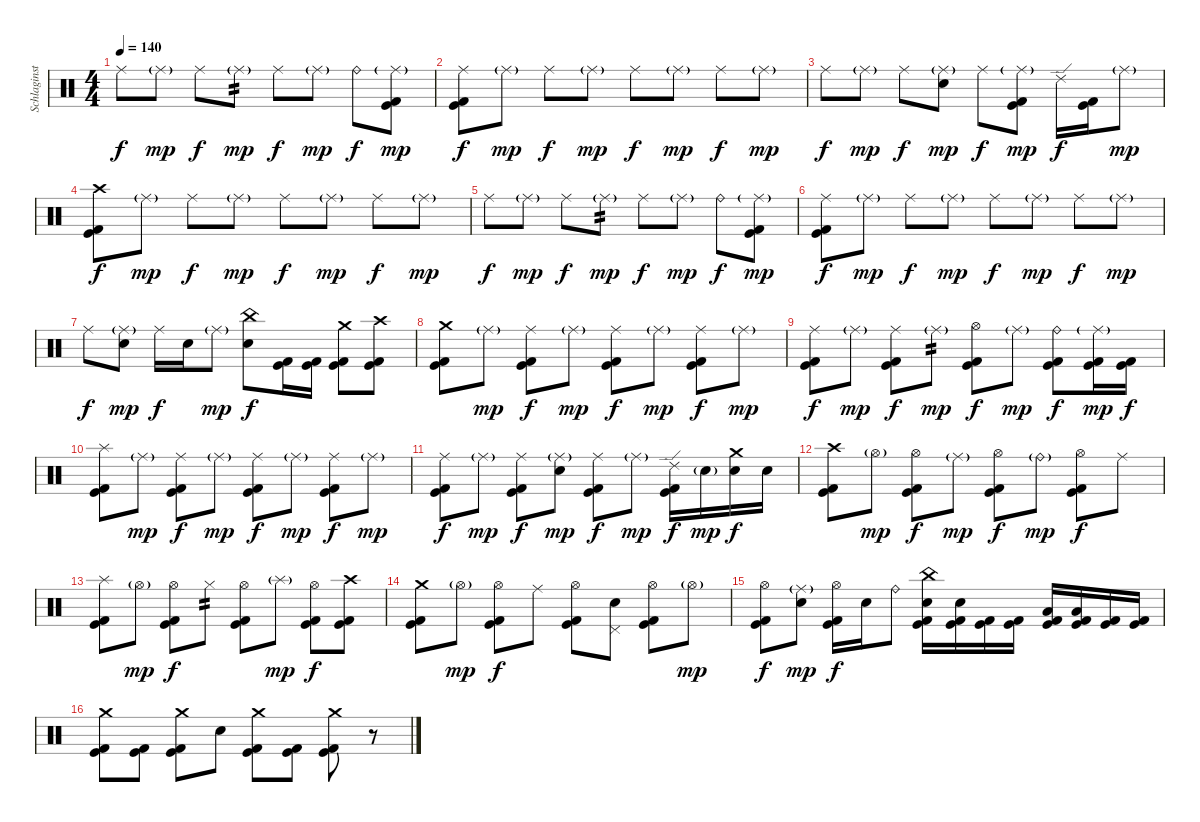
\track ("Schlaginstrumente - Auswahl" "Schlaginst") {instrument percussion}
\staff {score}
\articulation defaults
\ts (4 4)
\tempo 140
\clef neutral
\ks c "Ride (middle)".8{dy f} "Ride (middle)"{g}.8{dy mp} "Ride (middle)".8{dy f} "Ride (middle)"{g}.8{tp 2 dy mp} "Ride (middle)".8{dy f} "Ride (middle)"{g}.8{dy mp} "Ride (bell)".8{dy f}
("Ride (middle)"{g} "Kick (hit)" "Kick (hit) 2").8{dy mp} |
("Ride (middle)" "Kick (hit)" "Kick (hit) 2").8{dy f} "Ride (middle)"{g}.8{dy mp} "Ride (middle)".8{dy f} "Ride (middle)"{g}.8{dy mp} "Ride (middle)".8{dy f} "Ride (middle)"{g}.8{dy mp} "Ride (middle)".8{dy f} "Ride (middle)"{g}.8{dy mp} |
"Ride (middle)".8{dy f} "Ride (middle)"{g}.8{dy mp} "Ride (middle)".8{dy f} ("Ride (middle)"{g} "Electric Snare (hit)").8{dy mp} "Ride (middle)".8{dy f} ("Ride (middle)"{g} "Kick (hit)" "Kick (hit) 2").8{dy mp} "Ride (edge) 2".16{dy f} ("Kick (hit)" "Kick (hit) 2").16 "Ride (middle)"{g}.8{dy mp} |
("Crash high (hit)" "Kick (hit)" "Kick (hit) 2").8{dy f} "Ride (middle)"{g}.8{dy mp} "Ride (middle)".8{dy f} "Ride (middle)"{g}.8{dy mp} "Ride (middle)".8{dy f} "Ride (middle)"{g}.8{dy mp} "Ride (middle)".8{dy f} "Ride (middle)"{g}.8{dy mp} |
"Ride (middle)".8{dy f} "Ride (middle)"{g}.8{dy mp} "Ride (middle)".8{dy f} "Ride (middle)"{g}.8{tp 2 dy mp} "Ride (middle)".8{dy f} "Ride (middle)"{g}.8{dy mp} "Ride (bell)".8{dy f} ("Ride (middle)"{g} "Kick (hit)" "Kick (hit) 2").8{dy mp} |
("Ride (middle)" "Kick (hit)" "Kick (hit) 2").8{dy f} "Ride (middle)"{g}.8{dy mp} "Ride (middle)".8{dy f} "Ride (middle)"{g}.8{dy mp} "Ride (middle)".8{dy f} "Ride (middle)"{g}.8{dy mp} "Ride (middle)".8{dy f} "Ride (middle)"{g}.8{dy mp} |
"Ride (middle)".8{dy f} ("Ride (middle)"{g} "Electric Snare (hit)").8{dy mp} "Ride (middle)".16{dy f} "Electric Snare (hit)".16 "Ride (middle)"{g}.8{dy mp} ("China (hit)" "Electric Snare (hit)").8{dy f} ("Kick (hit)" "Kick (hit) 2").16 ("Kick (hit)" "Kick (hit) 2").16 ("Crash medium (hit)" "Kick (hit)" "Kick (hit) 2").8 ("Crash high (hit)" "Kick (hit)" "Kick (hit) 2").8 |
("Crash medium (hit)" "Kick (hit)" "Kick (hit) 2").8 "Ride (middle)"{g}.8{dy mp} ("Ride (middle)" "Kick (hit)" "Kick (hit) 2").8{dy f} "Ride (middle)"{g}.8{dy mp} ("Ride (middle)" "Kick (hit)" "Kick (hit) 2").8{dy f} "Ride (middle)"{g}.8{dy mp} ("Ride (middle)" "Kick (hit)" "Kick (hit) 2").8{dy f} "Ride (middle)"{g}.8{dy mp} |
("Ride (middle)" "Kick (hit)" "Kick (hit) 2").8{dy f} "Ride (middle)"{g}.8{dy mp} ("Ride (middle)" "Kick (hit)" "Kick (hit) 2").8{dy f} "Ride (middle)"{g}.8{tp 2 dy mp} ("Hi-Hat (open)" "Kick (hit)" "Kick (hit) 2").8{dy f} "Ride (middle)"{g}.8{dy mp} ("Ride (bell)" "Kick (hit)" "Kick (hit) 2").8{dy f} ("Ride (middle)"{g} "Kick (hit)" "Kick (hit) 2").16{dy mp} ("Kick (hit)" "Kick (hit) 2").16{dy f} |
("Splash (hit)" "Kick (hit)" "Kick (hit) 2").8 "Ride (middle)"{g}.8{dy mp} ("Ride (middle)" "Kick (hit)" "Kick (hit) 2").8{dy f} "Ride (middle)"{g}.8{dy mp} ("Ride (middle)" "Kick (hit)" "Kick (hit) 2").8{dy f} "Ride (middle)"{g}.8{dy mp} ("Ride (middle)" "Kick (hit)" "Kick (hit) 2").8{dy f} "Ride (middle)"{g}.8{dy mp} |
("Ride (middle)" "Kick (hit)" "Kick (hit) 2").8{dy f} "Ride (middle)"{g}.8{dy mp} ("Ride (middle)" "Kick (hit)" "Kick (hit) 2").8{dy f} ("Ride (middle)"{g} "Electric Snare (hit)").8{dy mp} ("Ride (middle)" "Kick (hit)" "Kick (hit) 2").8{dy f} "Ride (middle)"{g}.8{dy mp} ("Ride (edge) 2" "Kick (hit)" "Kick (hit) 2").16{dy f} "Electric Snare (hit)"{g}.16{dy mp} ("Crash medium (hit)" "Electric Snare (hit)").16{dy f} "Electric Snare (hit)".16 |
("Crash high (hit)" "Kick (hit)" "Kick (hit) 2").8 "Hi-Hat (open)"{g}.8{dy mp} ("Hi-Hat (open)" "Kick (hit)" "Kick (hit) 2").8{dy f} "Ride (middle)"{g}.8{dy mp} ("Hi-Hat (open)" "Kick (hit)" "Kick (hit) 2").8{dy f} "Ride (bell)"{g}.8{dy mp} ("Hi-Hat (open)" "Kick (hit)" "Kick (hit) 2").8{dy f} "Ride (middle)".8 |
("Splash (hit)" "Kick (hit)" "Kick (hit) 2").8 "Hi-Hat (open)"{g}.8{dy mp} ("Hi-Hat (open)" "Kick (hit)" "Kick (hit) 2").8{dy f} "Hi-Hat (closed)".8{tp 2} ("Hi-Hat (open)" "Kick (hit)" "Kick (hit) 2").8 "Splash (hit)"{g}.8{dy mp} ("Hi-Hat (open)" "Kick (hit)" "Kick (hit) 2").8{dy f} ("Crash high (hit)" "Kick (hit)" "Kick (hit) 2").8 |
("Crash medium (hit)" "Kick (hit)" "Kick (hit) 2").8 "Hi-Hat (open)"{g}.8{dy mp} ("Hi-Hat (open)" "Kick (hit)" "Kick (hit) 2").8{dy f} "Ride (middle)".8 ("Hi-Hat (open)" "Kick (hit)" "Kick (hit) 2").8 ("Pedal Hi-Hat (hit)" "Electric Snare (hit)").8 ("Hi-Hat (open)" "Kick (hit)" "Kick (hit) 2").8 "Hi-Hat (open)"{g}.8{dy mp} |
("Hi-Hat (open)" "Kick (hit)" "Kick (hit) 2").8{dy f} ("Ride (middle)"{g} "Electric Snare (hit)").8{dy mp} ("Hi-Hat (open)" "Kick (hit)" "Kick (hit) 2").16{dy f} "Electric Snare (hit)".16 "Ride (bell)".8 ("China (hit)" "Electric Snare (hit)" "Kick (hit)" "Kick (hit) 2").16 ("Electric Snare (hit)" "Kick (hit)" "Kick (hit) 2").16 ("Kick (hit)" "Kick (hit) 2").16 ("Kick (hit)" "Kick (hit) 2").16 ("Low Tom (hit)" "Kick (hit)" "Kick (hit) 2").16 ("Low Tom (hit)" "Kick (hit)" "Kick (hit) 2").16 ("Kick (hit)" "Kick (hit) 2").16 ("Kick (hit)" "Kick (hit) 2").16 |
("Crash medium (hit)" "Kick (hit)" "Kick (hit) 2").8 ("Kick (hit)" "Kick (hit) 2").8 ("Crash medium (hit)" "Kick (hit)" "Kick (hit) 2").8 "Electric Snare (hit)".8 ("Crash medium (hit)" "Kick (hit)" "Kick (hit) 2").8 ("Kick (hit)" "Kick (hit) 2").8 ("Crash medium (hit)" "Kick (hit)" "Kick (hit) 2").8 r.8
